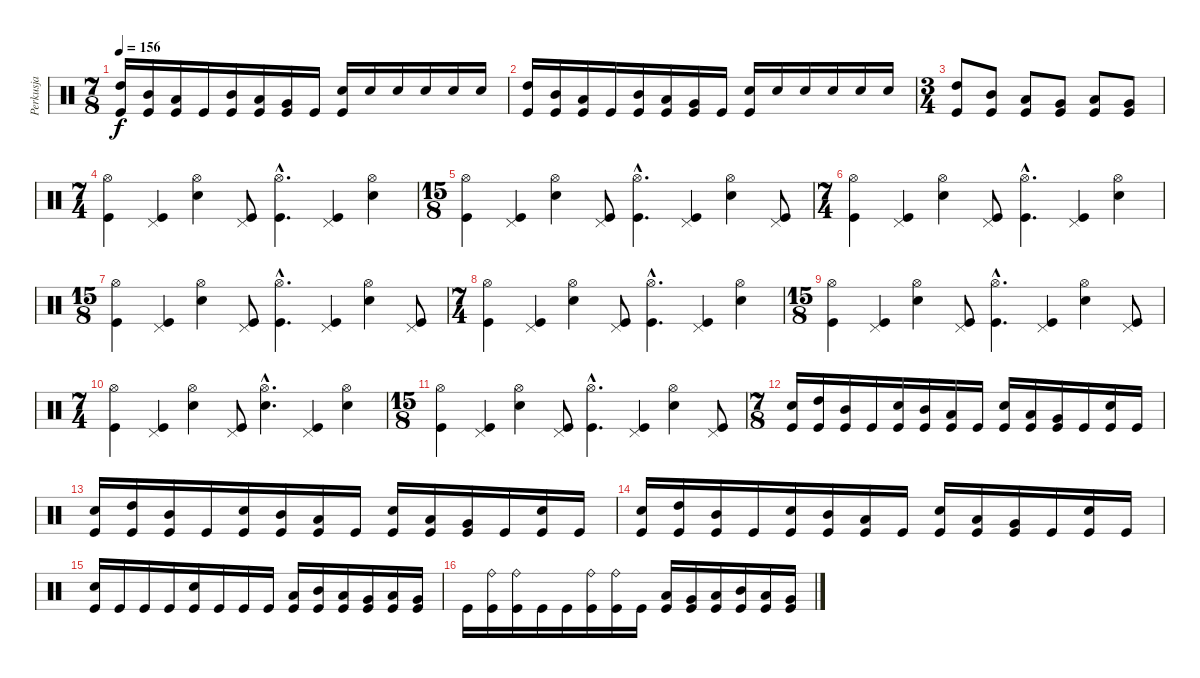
\track ("Perkusja" "Perkusja") {instrument percussion}
\staff {score}
\articulation defaults
\ts (7 8)
\tempo 156
\clef neutral
\ks c
("High Tom (hit)" "Kick (hit)").16{dy f} ("Mid Tom (hit)" "Kick (hit)").16 ("Low Tom (hit)" "Kick (hit)").16 "Kick (hit)".16 ("Mid Tom (hit)" "Kick (hit)").16 ("Low Tom (hit)" "Kick (hit)").16 ("Very Low Tom (hit)" "Kick (hit)").16 "Kick (hit)".16 ("Snare (hit) 2" "Kick (hit)").16 "Snare (hit) 2".16 "Snare (hit) 2".16 "Snare (hit) 2".16 "Snare (hit) 2".16 "Snare (hit) 2".16 |
("High Tom (hit)" "Kick (hit)").16 ("Mid Tom (hit)" "Kick (hit)").16 ("Low Tom (hit)" "Kick (hit)").16 "Kick (hit)".16 ("Mid Tom (hit)" "Kick (hit)").16 ("Low Tom (hit)" "Kick (hit)").16 ("Very Low Tom (hit)" "Kick (hit)").16 "Kick (hit)".16 ("Snare (hit) 2" "Kick (hit)").16 "Snare (hit) 2".16 "Snare (hit) 2".16 "Snare (hit) 2".16 "Snare (hit) 2".16 "Snare (hit) 2".16 |
\ts (3 4)
("High Tom (hit)" "Kick (hit)").8 ("Mid Tom (hit)" "Kick (hit)").8 ("Low Tom (hit)" "Kick (hit)").8 ("Very Low Tom (hit)" "Kick (hit)").8 ("Low Tom (hit)" "Kick (hit)").8 ("Very Low Tom (hit)" "Kick (hit)").8 |
\ts (7 4)
("Hi-Hat (open)" "Kick (hit)").4 ("Pedal Hi-Hat (hit)" "Kick (hit)").4 ("Hi-Hat (open)" "Snare (hit) 2").4 ("Pedal Hi-Hat (hit)" "Kick (hit)").8 ("Hi-Hat (open)"{hac} "Kick (hit)"{hac}).4{d} ("Pedal Hi-Hat (hit)" "Kick (hit)").4 ("Hi-Hat (open)" "Snare (hit) 2").4 |
\ts (15 8)
("Hi-Hat (open)" "Kick (hit)").4 ("Pedal Hi-Hat (hit)" "Kick (hit)").4 ("Hi-Hat (open)" "Snare (hit) 2").4 ("Pedal Hi-Hat (hit)" "Kick (hit)").8 ("Hi-Hat (open)"{hac} "Kick (hit)"{hac}).4{d} ("Pedal Hi-Hat (hit)" "Kick (hit)").4 ("Hi-Hat (open)" "Snare (hit) 2").4 ("Pedal Hi-Hat (hit)" "Kick (hit)").8 |
\ts (7 4)
("Hi-Hat (open)" "Kick (hit)").4 ("Pedal Hi-Hat (hit)" "Kick (hit)").4 ("Hi-Hat (open)" "Snare (hit) 2").4 ("Pedal Hi-Hat (hit)" "Kick (hit)").8 ("Hi-Hat (open)"{hac} "Kick (hit)"{hac}).4{d} ("Pedal Hi-Hat (hit)" "Kick (hit)").4 ("Hi-Hat (open)" "Snare (hit) 2").4 |
\ts (15 8)
("Hi-Hat (open)" "Kick (hit)").4 ("Pedal Hi-Hat (hit)" "Kick (hit)").4 ("Hi-Hat (open)" "Snare (hit) 2").4 ("Pedal Hi-Hat (hit)" "Kick (hit)").8 ("Hi-Hat (open)"{hac} "Kick (hit)"{hac}).4{d} ("Pedal Hi-Hat (hit)" "Kick (hit)").4 ("Hi-Hat (open)" "Snare (hit) 2").4 ("Pedal Hi-Hat (hit)" "Kick (hit)").8 |
\ts (7 4)
("Hi-Hat (open)" "Kick (hit)").4 ("Pedal Hi-Hat (hit)" "Kick (hit)").4 ("Hi-Hat (open)" "Snare (hit) 2").4 ("Pedal Hi-Hat (hit)" "Kick (hit)").8 ("Hi-Hat (open)"{hac} "Kick (hit)"{hac}).4{d} ("Pedal Hi-Hat (hit)" "Kick (hit)").4 ("Hi-Hat (open)" "Snare (hit) 2").4 |
\ts (15 8)
("Hi-Hat (open)" "Kick (hit)").4 ("Pedal Hi-Hat (hit)" "Kick (hit)").4 ("Hi-Hat (open)" "Snare (hit) 2").4 ("Pedal Hi-Hat (hit)" "Kick (hit)").8 ("Hi-Hat (open)"{hac} "Kick (hit)"{hac}).4{d} ("Pedal Hi-Hat (hit)" "Kick (hit)").4 ("Hi-Hat (open)" "Snare (hit) 2").4 ("Pedal Hi-Hat (hit)" "Kick (hit)").8 |
\ts (7 4)
("Hi-Hat (open)" "Kick (hit)").4 ("Pedal Hi-Hat (hit)" "Kick (hit)").4 ("Hi-Hat (open)" "Snare (hit) 2").4 ("Pedal Hi-Hat (hit)" "Kick (hit)").8 ("Hi-Hat (open)"{hac} "Snare (hit) 2"{hac}).4{d} ("Pedal Hi-Hat (hit)" "Kick (hit)").4 ("Hi-Hat (open)" "Snare (hit) 2").4 |
\ts (15 8)
("Hi-Hat (open)" "Kick (hit)").4 ("Pedal Hi-Hat (hit)" "Kick (hit)").4 ("Hi-Hat (open)" "Snare (hit) 2").4 ("Pedal Hi-Hat (hit)" "Kick (hit)").8 ("Hi-Hat (open)"{hac} "Kick (hit)"{hac}).4{d} ("Pedal Hi-Hat (hit)" "Kick (hit)").4 ("Hi-Hat (open)" "Snare (hit) 2").4 ("Pedal Hi-Hat (hit)" "Kick (hit)").8 |
\ts (7 8)
("Snare (hit) 2" "Kick (hit)").16 ("High Tom (hit)" "Kick (hit)").16 ("Mid Tom (hit)" "Kick (hit)").16 "Kick (hit)".16 ("Snare (hit) 2" "Kick (hit)").16 ("Mid Tom (hit)" "Kick (hit)").16 ("Low Tom (hit)" "Kick (hit)").16 "Kick (hit)".16 ("Snare (hit) 2" "Kick (hit)").16 ("Low Tom (hit)" "Kick (hit)").16 ("Very Low Tom (hit)" "Kick (hit)").16 "Kick (hit)".16 ("Snare (hit) 2" "Kick (hit)").16 "Kick (hit)".16 |
("Snare (hit) 2" "Kick (hit)").16 ("High Tom (hit)" "Kick (hit)").16 ("Mid Tom (hit)" "Kick (hit)").16 "Kick (hit)".16 ("Snare (hit) 2" "Kick (hit)").16 ("Mid Tom (hit)" "Kick (hit)").16 ("Low Tom (hit)" "Kick (hit)").16 "Kick (hit)".16 ("Snare (hit) 2" "Kick (hit)").16 ("Low Tom (hit)" "Kick (hit)").16 ("Very Low Tom (hit)" "Kick (hit)").16 "Kick (hit)".16 ("Snare (hit) 2" "Kick (hit)").16 "Kick (hit)".16 |
("Snare (hit) 2" "Kick (hit)").16 ("High Tom (hit)" "Kick (hit)").16 ("Mid Tom (hit)" "Kick (hit)").16 "Kick (hit)".16 ("Snare (hit) 2" "Kick (hit)").16 ("Mid Tom (hit)" "Kick (hit)").16 ("Low Tom (hit)" "Kick (hit)").16 "Kick (hit)".16 ("Snare (hit) 2" "Kick (hit)").16 ("Low Tom (hit)" "Kick (hit)").16 ("Very Low Tom (hit)" "Kick (hit)").16 "Kick (hit)".16 ("Snare (hit) 2" "Kick (hit)").16 "Kick (hit)".16 |
("Snare (hit) 2" "Kick (hit)").16 "Kick (hit)".16 "Kick (hit)".16 "Kick (hit)".16 ("Snare (hit) 2" "Kick (hit)").16 "Kick (hit)".16 "Kick (hit)".16 "Kick (hit)".16 ("Low Tom (hit)" "Kick (hit)").16 ("Mid Tom (hit)" "Kick (hit)").16 ("Low Tom (hit)" "Kick (hit)").16 ("Very Low Tom (hit)" "Kick (hit)").16 ("Low Tom (hit)" "Kick (hit)").16 ("Very Low Tom (hit)" "Kick (hit)").16 |
"Kick (hit)".16 ("Ride (bell)" "Kick (hit)").16 ("Ride (bell)" "Kick (hit)").16 "Kick (hit)".16 "Kick (hit)".16 ("Ride (bell)" "Kick (hit)").16 ("Ride (bell)" "Kick (hit)").16 "Kick (hit)".16 ("Low Tom (hit)" "Kick (hit)").16 ("Very Low Tom (hit)" "Kick (hit)").16 ("Low Floor Tom (hit)" "Kick (hit)").16 ("Mid Tom (hit)" "Kick (hit)").16 ("Low Tom (hit)" "Kick (hit)").16 ("Very Low Tom (hit)" "Kick (hit)").16
